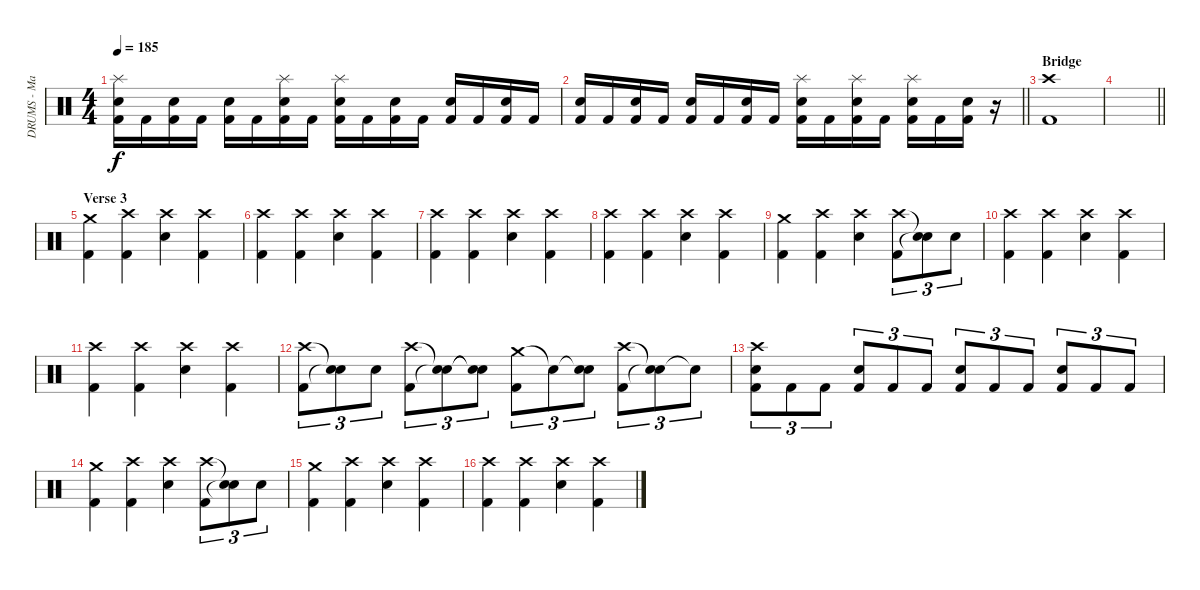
\track ("DRUMS - Mario Duplantier" "DRUMS - Ma") {instrument percussion}
\staff {score}
\articulation defaults
\ts (4 4)
\tempo 185
\clef neutral
\ks c
("Splash (hit)" "Electric Snare (hit)" "Kick (hit) 2").16{dy f} "Kick (hit) 2".16 ("Electric Snare (hit)" "Kick (hit) 2").16 "Kick (hit) 2".16 ("Electric Snare (hit)" "Kick (hit) 2").16 "Kick (hit) 2".16 ("Splash (hit)" "Electric Snare (hit)" "Kick (hit) 2").16 "Kick (hit) 2".16 ("Splash (hit)" "Electric Snare (hit)" "Kick (hit) 2").16 "Kick (hit) 2".16 ("Electric Snare (hit)" "Kick (hit) 2").16 "Kick (hit) 2".16 ("Electric Snare (hit)" "Kick (hit) 2").16 "Kick (hit) 2".16 ("Electric Snare (hit)" "Kick (hit) 2").16 "Kick (hit) 2".16 |
\barLineRight lightlight
("Electric Snare (hit)" "Kick (hit) 2").16 "Kick (hit) 2".16 ("Electric Snare (hit)" "Kick (hit) 2").16 "Kick (hit) 2".16 ("Electric Snare (hit)" "Kick (hit) 2").16 "Kick (hit) 2".16 ("Electric Snare (hit)" "Kick (hit) 2").16 "Kick (hit) 2".16 ("Splash (hit)" "Electric Snare (hit)" "Kick (hit) 2").16 "Kick (hit) 2".16 ("Splash (hit)" "Electric Snare (hit)" "Kick (hit) 2").16 "Kick (hit) 2".16 ("Splash (hit)" "Electric Snare (hit)" "Kick (hit) 2").16 "Kick (hit) 2".16 ("Electric Snare (hit)" "Kick (hit) 2").16 r.16 |
\section ("" "Bridge")
("Crash high (hit)" "Kick (hit) 2").1 |
\barLineRight lightlight
|
\section ("" "Verse 3")
("Crash medium (hit)" "Kick (hit) 2").4 ("Crash high (hit)" "Kick (hit) 2").4 ("Crash high (hit)" "Electric Snare (hit)").4 ("Crash high (hit)" "Kick (hit) 2").4 |
("Crash high (hit)" "Kick (hit) 2").4 ("Crash high (hit)" "Kick (hit) 2").4 ("Crash high (hit)" "Electric Snare (hit)").4 ("Crash high (hit)" "Kick (hit) 2").4 |
("Crash high (hit)" "Kick (hit) 2").4 ("Crash high (hit)" "Kick (hit) 2").4 ("Crash high (hit)" "Electric Snare (hit)").4 ("Crash high (hit)" "Kick (hit) 2").4 |
("Crash high (hit)" "Kick (hit) 2").4 ("Crash high (hit)" "Kick (hit) 2").4 ("Crash high (hit)" "Electric Snare (hit)").4 ("Crash high (hit)" "Kick (hit) 2").4 |
("Crash medium (hit)" "Kick (hit) 2").4 ("Crash high (hit)" "Kick (hit) 2").4 ("Crash high (hit)" "Electric Snare (hit)").4 ("Crash high (hit)" "Kick (hit) 2").8{tu (3 2)} ("Snare (hit)"{t} "Snare (hit)"{t}).8{tu (3 2)} "Electric Snare (hit)".8{tu (3 2)} |
("Crash high (hit)" "Kick (hit) 2").4 ("Crash high (hit)" "Kick (hit) 2").4 ("Crash high (hit)" "Electric Snare (hit)").4 ("Crash high (hit)" "Kick (hit) 2").4 |
("Crash high (hit)" "Kick (hit) 2").4 ("Crash high (hit)" "Kick (hit) 2").4 ("Crash high (hit)" "Electric Snare (hit)").4 ("Crash high (hit)" "Kick (hit) 2").4 |
("Crash high (hit)" "Kick (hit) 2").8{tu (3 2)} ("Snare (hit)"{t} "Snare (hit)"{t}).8{tu (3 2)} "Electric Snare (hit)".8{tu (3 2)} ("Crash high (hit)" "Kick (hit) 2").8{tu (3 2)} ("Snare (hit)"{t} "Snare (hit)"{t}).8{tu (3 2)} ("Snare (hit)"{t} "Snare (hit)"{t}).8{tu (3 2)} ("Crash medium (hit)" "Kick (hit) 2").8{tu (3 2)} "Snare (hit)"{t}.8{tu (3 2)} ("Snare (hit)"{t} "Electric Snare (hit)").8{tu (3 2)} ("Crash high (hit)" "Kick (hit) 2").8{tu (3 2)} ("Snare (hit)"{t} "Snare (hit)"{t}).8{tu (3 2)} "Snare (hit)"{t}.8{tu (3 2)} |
("Crash high (hit)" "Electric Snare (hit)" "Kick (hit) 2").8{tu (3 2)} "Kick (hit) 2".8{tu (3 2)} "Kick (hit) 2".8{tu (3 2)} ("Electric Snare (hit)" "Kick (hit) 2").8{tu (3 2)} "Kick (hit) 2".8{tu (3 2)} "Kick (hit) 2".8{tu (3 2)} ("Electric Snare (hit)" "Kick (hit) 2").8{tu (3 2)} "Kick (hit) 2".8{tu (3 2)} "Kick (hit) 2".8{tu (3 2)} ("Electric Snare (hit)" "Kick (hit) 2").8{tu (3 2)} "Kick (hit) 2".8{tu (3 2)} "Kick (hit) 2".8{tu (3 2)} |
("Crash medium (hit)" "Kick (hit) 2").4 ("Crash high (hit)" "Kick (hit) 2").4 ("Crash high (hit)" "Electric Snare (hit)").4 ("Crash high (hit)" "Kick (hit) 2").8{tu (3 2)} ("Snare (hit)"{t} "Snare (hit)"{t}).8{tu (3 2)} "Electric Snare (hit)".8{tu (3 2)} |
("Crash medium (hit)" "Kick (hit) 2").4 ("Crash high (hit)" "Kick (hit) 2").4 ("Crash high (hit)" "Electric Snare (hit)").4 ("Crash high (hit)" "Kick (hit) 2").4 |
("Crash high (hit)" "Kick (hit) 2").4 ("Crash high (hit)" "Kick (hit) 2").4 ("Crash high (hit)" "Electric Snare (hit)").4 ("Crash high (hit)" "Kick (hit) 2").4
